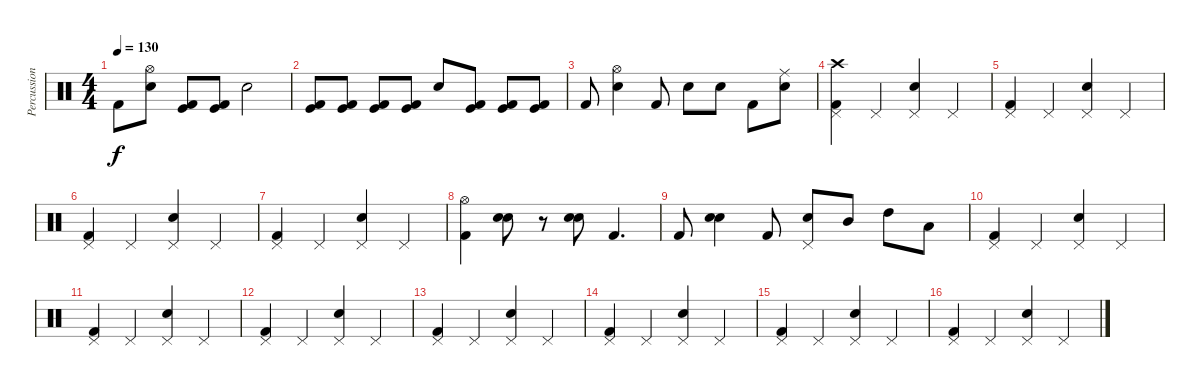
\track ("Percussion 3" "Percussion") {instrument percussion}
\staff {score}
\articulation defaults
\ts (4 4)
\tempo 130
\clef neutral
\ks c "Kick (hit) 2".8{dy f}
("Snare (hit) 2" "Hi-Hat (open)").8 ("Kick (hit) 2" "Kick (hit)").8 ("Kick (hit) 2" "Kick (hit)").8 "Snare (hit) 2".2 |
("Kick (hit) 2" "Kick (hit)").8 ("Kick (hit) 2" "Kick (hit)").8 ("Kick (hit) 2" "Kick (hit)").8 ("Kick (hit) 2" "Kick (hit)").8 "Snare (hit) 2".8 ("Kick (hit) 2" "Kick (hit)").8 ("Kick (hit) 2" "Kick (hit)").8 ("Kick (hit) 2" "Kick (hit)").8 |
"Kick (hit) 2".8 ("Snare (hit) 2" "Hi-Hat (open)").4 "Kick (hit) 2".8 "Snare (hit) 2".8 "Snare (hit) 2".8 "Kick (hit) 2".8 ("Snare (hit) 2" "Ride (middle)").8 |
("Pedal Hi-Hat (hit)" "Crash high (hit)" "Kick (hit) 2").4 "Pedal Hi-Hat (hit)".4 ("Pedal Hi-Hat (hit)" "Snare (hit) 2").4 "Pedal Hi-Hat (hit)".4 |
("Pedal Hi-Hat (hit)" "Kick (hit) 2").4 "Pedal Hi-Hat (hit)".4 ("Pedal Hi-Hat (hit)" "Snare (hit) 2").4 "Pedal Hi-Hat (hit)".4 |
("Pedal Hi-Hat (hit)" "Kick (hit) 2").4 "Pedal Hi-Hat (hit)".4 ("Pedal Hi-Hat (hit)" "Snare (hit) 2").4 "Pedal Hi-Hat (hit)".4 |
("Pedal Hi-Hat (hit)" "Kick (hit) 2").4 "Pedal Hi-Hat (hit)".4 ("Pedal Hi-Hat (hit)" "Snare (hit) 2").4 "Pedal Hi-Hat (hit)".4 |
("Hi-Hat (open)" "Kick (hit) 2").4 ("Electric Snare (hit)" "Snare (hit) 2").8 r.8 ("Electric Snare (hit)" "Snare (hit) 2").8 "Kick (hit) 2".4{d} |
"Kick (hit) 2".8 ("Electric Snare (hit)" "Snare (hit) 2").4 "Kick (hit) 2".8 ("Pedal Hi-Hat (hit)" "Snare (hit) 2").8 "Mid Tom (hit)".8 "High Tom (hit)".8 "Low Tom (hit)".8 |
("Pedal Hi-Hat (hit)" "Kick (hit) 2").4 "Pedal Hi-Hat (hit)".4 ("Pedal Hi-Hat (hit)" "Snare (hit) 2").4 "Pedal Hi-Hat (hit)".4 |
("Pedal Hi-Hat (hit)" "Kick (hit) 2").4 "Pedal Hi-Hat (hit)".4 ("Pedal Hi-Hat (hit)" "Snare (hit) 2").4 "Pedal Hi-Hat (hit)".4 |
("Pedal Hi-Hat (hit)" "Kick (hit) 2").4 "Pedal Hi-Hat (hit)".4 ("Pedal Hi-Hat (hit)" "Snare (hit) 2").4 "Pedal Hi-Hat (hit)".4 |
("Pedal Hi-Hat (hit)" "Kick (hit) 2").4 "Pedal Hi-Hat (hit)".4 ("Pedal Hi-Hat (hit)" "Snare (hit) 2").4 "Pedal Hi-Hat (hit)".4 |
("Pedal Hi-Hat (hit)" "Kick (hit) 2").4 "Pedal Hi-Hat (hit)".4 ("Pedal Hi-Hat (hit)" "Snare (hit) 2").4 "Pedal Hi-Hat (hit)".4 |
("Pedal Hi-Hat (hit)" "Kick (hit) 2").4 "Pedal Hi-Hat (hit)".4 ("Pedal Hi-Hat (hit)" "Snare (hit) 2").4 "Pedal Hi-Hat (hit)".4 |
("Pedal Hi-Hat (hit)" "Kick (hit) 2").4 "Pedal Hi-Hat (hit)".4 ("Pedal Hi-Hat (hit)" "Snare (hit) 2").4 "Pedal Hi-Hat (hit)".4
